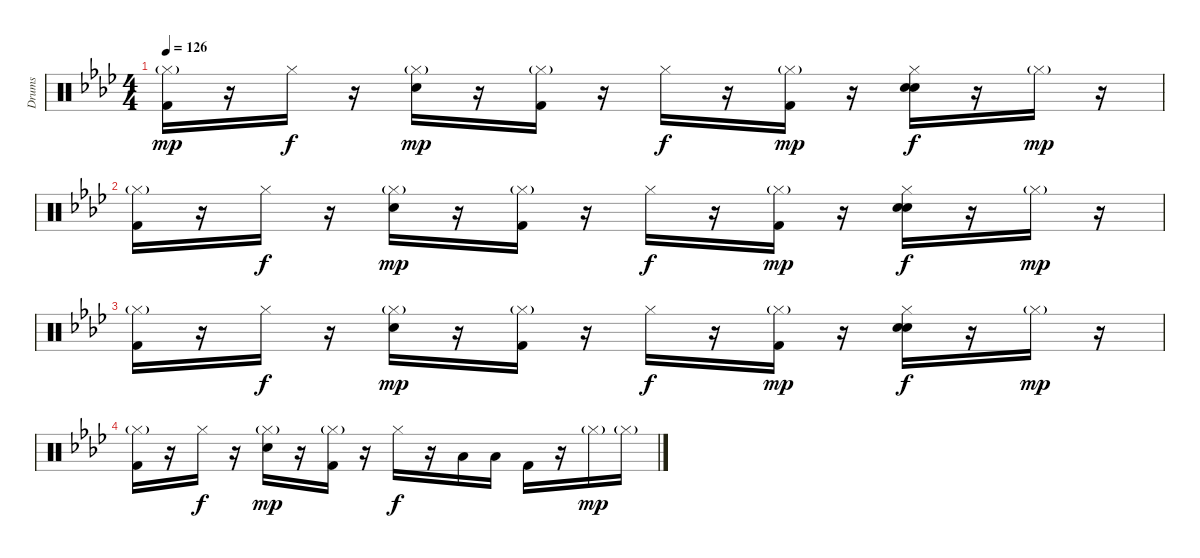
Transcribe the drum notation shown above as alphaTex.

\track ("Drums" "Drums") {instrument percussion}
\staff {score}
\articulation defaults
\ts (4 4)
\tempo 126
\clef neutral
\ks ab
("Hi-Hat (closed)"{g} "Kick (hit) 2").16{dy mp} r.16 "Hi-Hat (closed)".16{dy f} r.16 ("Hi-Hat (closed)"{g} "Snare (hit) 2").16{dy mp} r.16 ("Hi-Hat (closed)"{g} "Kick (hit) 2").16 r.16 "Hi-Hat (closed)".16{dy f} r.16 ("Hi-Hat (closed)"{g} "Kick (hit) 2").16{dy mp} r.16 ("Hi-Hat (closed)" "Hand Clap (hit)" "Snare (hit) 2").16{dy f} r.16 "Hi-Hat (closed)"{g}.16{dy mp} r.16 |
("Hi-Hat (closed)"{g} "Kick (hit) 2").16 r.16 "Hi-Hat (closed)".16{dy f} r.16 ("Hi-Hat (closed)"{g} "Snare (hit) 2").16{dy mp} r.16 ("Hi-Hat (closed)"{g} "Kick (hit) 2").16 r.16 "Hi-Hat (closed)".16{dy f} r.16 ("Hi-Hat (closed)"{g} "Kick (hit) 2").16{dy mp} r.16 ("Hi-Hat (closed)" "Hand Clap (hit)" "Snare (hit) 2").16{dy f} r.16 "Hi-Hat (closed)"{g}.16{dy mp} r.16 |
("Hi-Hat (closed)"{g} "Kick (hit) 2").16 r.16 "Hi-Hat (closed)".16{dy f} r.16 ("Hi-Hat (closed)"{g} "Snare (hit) 2").16{dy mp} r.16 ("Hi-Hat (closed)"{g} "Kick (hit) 2").16 r.16 "Hi-Hat (closed)".16{dy f} r.16 ("Hi-Hat (closed)"{g} "Kick (hit) 2").16{dy mp} r.16 ("Hi-Hat (closed)" "Hand Clap (hit)" "Snare (hit) 2").16{dy f} r.16 "Hi-Hat (closed)"{g}.16{dy mp} r.16 |
("Hi-Hat (closed)"{g} "Kick (hit) 2").16 r.16 "Hi-Hat (closed)".16{dy f} r.16 ("Hi-Hat (closed)"{g} "Snare (hit) 2").16{dy mp} r.16 ("Hi-Hat (closed)"{g} "Kick (hit) 2").16 r.16 "Hi-Hat (closed)".16{dy f} r.16 "Low Tom (hit)".16 "Low Tom (hit)".16 "Kick (hit) 2".16 r.16 "Hi-Hat (closed)"{g}.16{dy mp} "Hi-Hat (closed)"{g}.16
